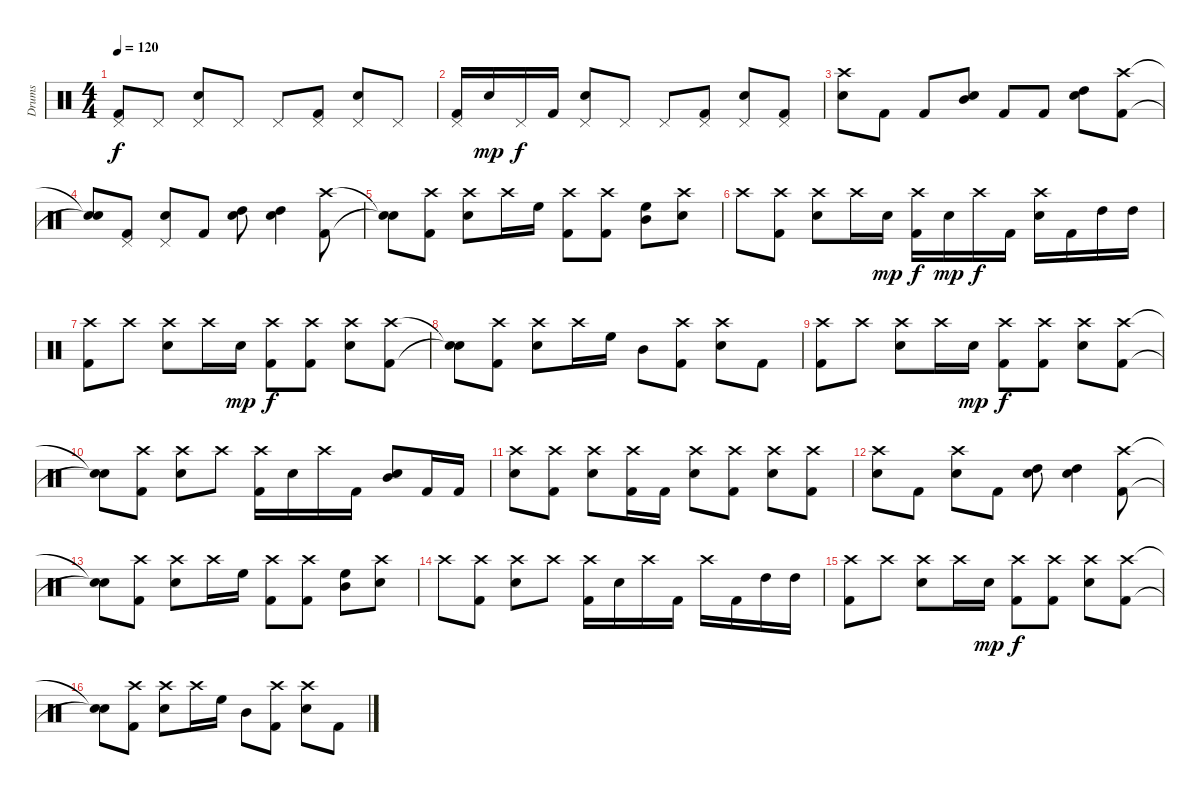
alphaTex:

\track ("Drums" "Drums") {instrument percussion}
\staff {score}
\articulation defaults
\ts (4 4)
\tempo 120
\clef neutral
\ks c
("Pedal Hi-Hat (hit)" "Kick (hit) 2").8{dy f} "Pedal Hi-Hat (hit)".8 ("Pedal Hi-Hat (hit)" "Electric Snare (hit)").8 "Pedal Hi-Hat (hit)".8 "Pedal Hi-Hat (hit)".8 ("Pedal Hi-Hat (hit)" "Kick (hit) 2").8 ("Pedal Hi-Hat (hit)" "Electric Snare (hit)").8 "Pedal Hi-Hat (hit)".8 |
("Pedal Hi-Hat (hit)" "Kick (hit) 2").16 "Electric Snare (hit)".16{dy mp} "Pedal Hi-Hat (hit)".16{dy f} "Kick (hit) 2".16 ("Pedal Hi-Hat (hit)" "Electric Snare (hit)").8 "Pedal Hi-Hat (hit)".8 "Pedal Hi-Hat (hit)".8 ("Pedal Hi-Hat (hit)" "Kick (hit) 2").8 ("Pedal Hi-Hat (hit)" "Electric Snare (hit)").8 ("Pedal Hi-Hat (hit)" "Kick (hit) 2").8 |
("Crash high (hit)" "Electric Snare (hit)").8 "Kick (hit) 2".8 "Kick (hit) 2".8 ("Mid Tom (hit)" "Electric Snare (hit)").8 "Kick (hit) 2".8 "Kick (hit) 2".8 ("Electric Snare (hit)" "High Tom (hit)").8 ("Crash high (hit)" "Kick (hit) 2").8 |
("Snare (hit)"{t} "Snare (hit)"{t}).8 ("Pedal Hi-Hat (hit)" "Kick (hit) 2").8 ("Pedal Hi-Hat (hit)" "Electric Snare (hit)").8 "Kick (hit) 2".8 ("Electric Snare (hit)" "High Tom (hit)").8 ("Electric Snare (hit)" "High Tom (hit)").4 ("Crash high (hit)" "Kick (hit) 2").8 |
("Snare (hit)"{t} "Snare (hit)"{t}).8 ("Crash high (hit)" "Kick (hit) 2").8 ("Crash high (hit)" "Electric Snare (hit)").8 "Crash high (hit)".16 "High Floor Tom (hit)".16 ("Crash high (hit)" "Kick (hit) 2").8 ("Crash high (hit)" "Kick (hit) 2").8 ("High Floor Tom (hit)" "Mid Tom (hit)").8 ("Crash high (hit)" "Electric Snare (hit)").8 |
"Crash high (hit)".8 ("Crash high (hit)" "Kick (hit) 2").8 ("Crash high (hit)" "Electric Snare (hit)").8 "Crash high (hit)".16 "Electric Snare (hit)".16{dy mp} ("Crash high (hit)" "Kick (hit) 2").16{dy f} "Electric Snare (hit)".16{dy mp} "Crash high (hit)".16{dy f} "Kick (hit) 2".16 ("Crash high (hit)" "Electric Snare (hit)").16 "Kick (hit) 2".16 "High Tom (hit)".16 "High Tom (hit)".16 |
("Crash high (hit)" "Kick (hit) 2").8 "Crash high (hit)".8 ("Crash high (hit)" "Electric Snare (hit)").8 "Crash high (hit)".16 "Electric Snare (hit)".16{dy mp} ("Crash high (hit)" "Kick (hit) 2").8{dy f} ("Crash high (hit)" "Kick (hit) 2").8 ("Crash high (hit)" "Electric Snare (hit)").8 ("Crash high (hit)" "Kick (hit) 2").8 |
("Snare (hit)"{t} "Snare (hit)"{t}).8 ("Crash high (hit)" "Kick (hit) 2").8 ("Crash high (hit)" "Electric Snare (hit)").8 "Crash high (hit)".16 "High Floor Tom (hit)".16 "Mid Tom (hit)".8 ("Crash high (hit)" "Kick (hit) 2").8 ("Crash high (hit)" "Electric Snare (hit)").8 "Kick (hit) 2".8 |
("Crash high (hit)" "Kick (hit) 2").8 "Crash high (hit)".8 ("Crash high (hit)" "Electric Snare (hit)").8 "Crash high (hit)".16 "Electric Snare (hit)".16{dy mp} ("Crash high (hit)" "Kick (hit) 2").8{dy f} ("Crash high (hit)" "Kick (hit) 2").8 ("Crash high (hit)" "Electric Snare (hit)").8 ("Crash high (hit)" "Kick (hit) 2").8 |
("Snare (hit)"{t} "Snare (hit)"{t}).8 ("Crash high (hit)" "Kick (hit) 2").8 ("Crash high (hit)" "Electric Snare (hit)").8 "Crash high (hit)".8 ("Crash high (hit)" "Kick (hit) 2").16 "Electric Snare (hit)".16 "Crash high (hit)".16 "Kick (hit) 2".16 ("Mid Tom (hit)" "Electric Snare (hit)").8 "Kick (hit) 2".16 "Kick (hit) 2".16 |
("Crash high (hit)" "Electric Snare (hit)").8 ("Crash high (hit)" "Kick (hit) 2").8 ("Crash high (hit)" "Electric Snare (hit)").8 ("Crash high (hit)" "Kick (hit) 2").16 "Kick (hit) 2".16 ("Crash high (hit)" "Electric Snare (hit)").8 ("Crash high (hit)" "Kick (hit) 2").8 ("Crash high (hit)" "Electric Snare (hit)").8 ("Crash high (hit)" "Kick (hit) 2").8 |
("Crash high (hit)" "Electric Snare (hit)").8 "Kick (hit) 2".8 ("Crash high (hit)" "Electric Snare (hit)").8 "Kick (hit) 2".8 ("Electric Snare (hit)" "High Tom (hit)").8 ("Electric Snare (hit)" "High Tom (hit)").4 ("Crash high (hit)" "Kick (hit) 2").8 |
("Snare (hit)"{t} "Snare (hit)"{t}).8 ("Crash high (hit)" "Kick (hit) 2").8 ("Crash high (hit)" "Electric Snare (hit)").8 "Crash high (hit)".16 "High Floor Tom (hit)".16 ("Crash high (hit)" "Kick (hit) 2").8 ("Crash high (hit)" "Kick (hit) 2").8 ("High Floor Tom (hit)" "Mid Tom (hit)").8 ("Crash high (hit)" "Electric Snare (hit)").8 |
"Crash high (hit)".8 ("Crash high (hit)" "Kick (hit) 2").8 ("Crash high (hit)" "Electric Snare (hit)").8 "Crash high (hit)".8 ("Crash high (hit)" "Kick (hit) 2").16 "Electric Snare (hit)".16 "Crash high (hit)".16 "Kick (hit) 2".16 "Crash high (hit)".16 "Kick (hit) 2".16 "High Tom (hit)".16 "High Tom (hit)".16 |
("Crash high (hit)" "Kick (hit) 2").8 "Crash high (hit)".8 ("Crash high (hit)" "Electric Snare (hit)").8 "Crash high (hit)".16 "Electric Snare (hit)".16{dy mp} ("Crash high (hit)" "Kick (hit) 2").8{dy f} ("Crash high (hit)" "Kick (hit) 2").8 ("Crash high (hit)" "Electric Snare (hit)").8 ("Crash high (hit)" "Kick (hit) 2").8 |
("Snare (hit)"{t} "Snare (hit)"{t}).8 ("Crash high (hit)" "Kick (hit) 2").8 ("Crash high (hit)" "Electric Snare (hit)").8 "Crash high (hit)".16 "High Floor Tom (hit)".16 "Mid Tom (hit)".8 ("Crash high (hit)" "Kick (hit) 2").8 ("Crash high (hit)" "Electric Snare (hit)").8 "Kick (hit) 2".8
